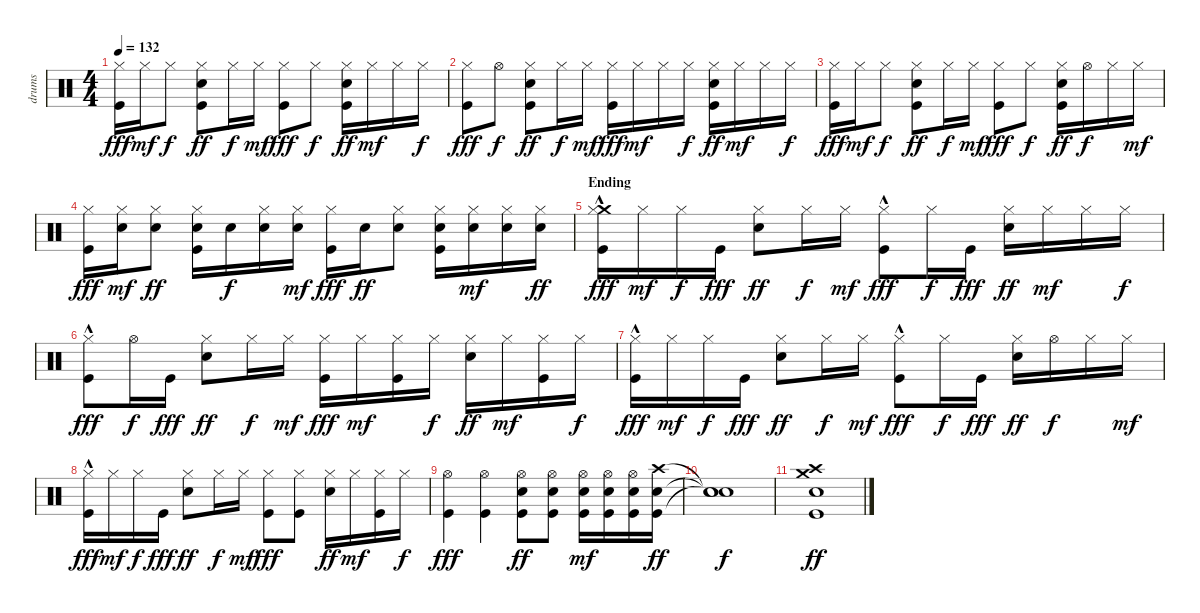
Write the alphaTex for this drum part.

\track ("drums" "drums") {instrument percussion}
\staff {score}
\articulation defaults
\ts (4 4)
\tempo 132
\clef neutral
\ks c
("Kick (hit)" "Hi-Hat (closed)").16{dy fff} "Hi-Hat (closed)".16{dy mf} "Hi-Hat (closed)".8{dy f} ("Kick (hit)" "Electric Snare (hit)" "Hi-Hat (closed)").8{dy ff} "Hi-Hat (closed)".16{dy f} "Hi-Hat (closed)".16{dy mf} ("Kick (hit)" "Hi-Hat (closed)").8{dy fff} "Hi-Hat (closed)".8{dy f} ("Kick (hit)" "Electric Snare (hit)" "Hi-Hat (closed)").16{dy ff} "Hi-Hat (closed)".16{dy mf} "Hi-Hat (closed)".16 "Hi-Hat (closed)".16{dy f} |
("Kick (hit)" "Hi-Hat (closed)").8{dy fff} "Hi-Hat (open)".8{dy f} ("Kick (hit)" "Electric Snare (hit)" "Hi-Hat (closed)").8{dy ff} "Hi-Hat (closed)".16{dy f} "Hi-Hat (closed)".16{dy mf} ("Kick (hit)" "Hi-Hat (closed)").16{dy fff} "Hi-Hat (closed)".16{dy mf} "Hi-Hat (closed)".16 "Hi-Hat (closed)".16{dy f} ("Kick (hit)" "Electric Snare (hit)" "Hi-Hat (closed)").16{dy ff} "Hi-Hat (closed)".16{dy mf} "Hi-Hat (closed)".16 "Hi-Hat (closed)".16{dy f} |
("Kick (hit)" "Hi-Hat (closed)").16{dy fff} "Hi-Hat (closed)".16{dy mf} "Hi-Hat (closed)".8{dy f} ("Kick (hit)" "Electric Snare (hit)" "Hi-Hat (closed)").8{dy ff} "Hi-Hat (closed)".16{dy f} "Hi-Hat (closed)".16{dy mf} ("Kick (hit)" "Hi-Hat (closed)").8{dy fff} "Hi-Hat (closed)".8{dy f} ("Kick (hit)" "Electric Snare (hit)" "Hi-Hat (closed)").16{dy ff} "Hi-Hat (open)".16{dy f} "Hi-Hat (closed)".16 "Hi-Hat (closed)".16{dy mf} |
("Kick (hit)" "Hi-Hat (closed)").16{dy fff} ("Electric Snare (hit)" "Hi-Hat (closed)").16{dy mf} ("Electric Snare (hit)" "Hi-Hat (closed)").8{dy ff} ("Kick (hit)" "Electric Snare (hit)" "Hi-Hat (closed)").16 "Electric Snare (hit)".16{dy f} ("Electric Snare (hit)" "Hi-Hat (closed)").16 ("Electric Snare (hit)" "Hi-Hat (closed)").16{dy mf} ("Kick (hit)" "Hi-Hat (closed)").16{dy fff} "Electric Snare (hit)".16{dy ff} ("Electric Snare (hit)" "Hi-Hat (closed)").8 ("Kick (hit)" "Electric Snare (hit)" "Hi-Hat (closed)").16 ("Electric Snare (hit)" "Hi-Hat (closed)").16{dy mf} ("Electric Snare (hit)" "Hi-Hat (closed)").16 ("Electric Snare (hit)" "Hi-Hat (closed)").16{dy ff} |
\section ("" "Ending")
("Kick (hit)"{hac} "Crash medium (hit)" "Hi-Hat (closed)").16{dy fff} "Hi-Hat (closed)".16{dy mf} "Hi-Hat (closed)".16{dy f} "Kick (hit)".16{dy fff} ("Electric Snare (hit)" "Hi-Hat (closed)").8{dy ff} "Hi-Hat (closed)".16{dy f} "Hi-Hat (closed)".16{dy mf} ("Kick (hit)"{hac} "Hi-Hat (closed)").8{dy fff} "Hi-Hat (closed)".16{dy f} "Kick (hit)".16{dy fff} ("Electric Snare (hit)" "Hi-Hat (closed)").16{dy ff} "Hi-Hat (closed)".16{dy mf} "Hi-Hat (closed)".16 "Hi-Hat (closed)".16{dy f} |
("Kick (hit)"{hac} "Hi-Hat (closed)").8{dy fff} "Hi-Hat (open)".16{dy f} "Kick (hit)".16{dy fff} ("Electric Snare (hit)" "Hi-Hat (closed)").8{dy ff} "Hi-Hat (closed)".16{dy f} "Hi-Hat (closed)".16{dy mf} ("Kick (hit)" "Hi-Hat (closed)").16{dy fff} "Hi-Hat (closed)".16{dy mf} ("Kick (hit)" "Hi-Hat (closed)").16 "Hi-Hat (closed)".16{dy f} ("Electric Snare (hit)" "Hi-Hat (closed)").16{dy ff} "Hi-Hat (closed)".16{dy mf} ("Kick (hit)" "Hi-Hat (closed)").16 "Hi-Hat (closed)".16{dy f} |
("Kick (hit)"{hac} "Hi-Hat (closed)").16{dy fff} "Hi-Hat (closed)".16{dy mf} "Hi-Hat (closed)".16{dy f} "Kick (hit)".16{dy fff} ("Electric Snare (hit)" "Hi-Hat (closed)").8{dy ff} "Hi-Hat (closed)".16{dy f} "Hi-Hat (closed)".16{dy mf} ("Kick (hit)"{hac} "Hi-Hat (closed)").8{dy fff} "Hi-Hat (closed)".16{dy f} "Kick (hit)".16{dy fff} ("Electric Snare (hit)" "Hi-Hat (closed)").16{dy ff} "Hi-Hat (open)".16{dy f} "Hi-Hat (closed)".16 "Hi-Hat (closed)".16{dy mf} |
("Kick (hit)"{hac} "Hi-Hat (closed)").16{dy fff} "Hi-Hat (closed)".16{dy mf} "Hi-Hat (closed)".16{dy f} "Kick (hit)".16{dy fff} ("Electric Snare (hit)" "Hi-Hat (closed)").8{dy ff} "Hi-Hat (closed)".16{dy f} "Hi-Hat (closed)".16{dy mf} ("Kick (hit)" "Hi-Hat (closed)").8{dy fff} ("Kick (hit)" "Hi-Hat (closed)").8 ("Electric Snare (hit)" "Hi-Hat (closed)").16{dy ff} "Hi-Hat (closed)".16{dy mf} ("Kick (hit)" "Hi-Hat (closed)").16 "Hi-Hat (closed)".16{dy f} |
("Kick (hit)" "Hi-Hat (open)").4{dy fff} ("Kick (hit)" "Hi-Hat (open)").4 ("Kick (hit)" "Electric Snare (hit)" "Hi-Hat (open)").8{dy ff} ("Kick (hit)" "Electric Snare (hit)" "Hi-Hat (open)").8 ("Kick (hit)" "Electric Snare (hit)" "Hi-Hat (open)").16{dy mf} ("Kick (hit)" "Electric Snare (hit)" "Hi-Hat (open)").16 ("Kick (hit)" "Electric Snare (hit)" "Hi-Hat (open)").16 ("Kick (hit)" "Electric Snare (hit)" "Crash high (hit)").16{dy ff} |
("Snare (hit)"{t} "Snare (hit)"{t} "Snare (hit)"{t}).1{dy f} |
("Kick (hit)" "Electric Snare (hit)" "Crash high (hit)" "Crash medium (hit)").1{dy ff}
